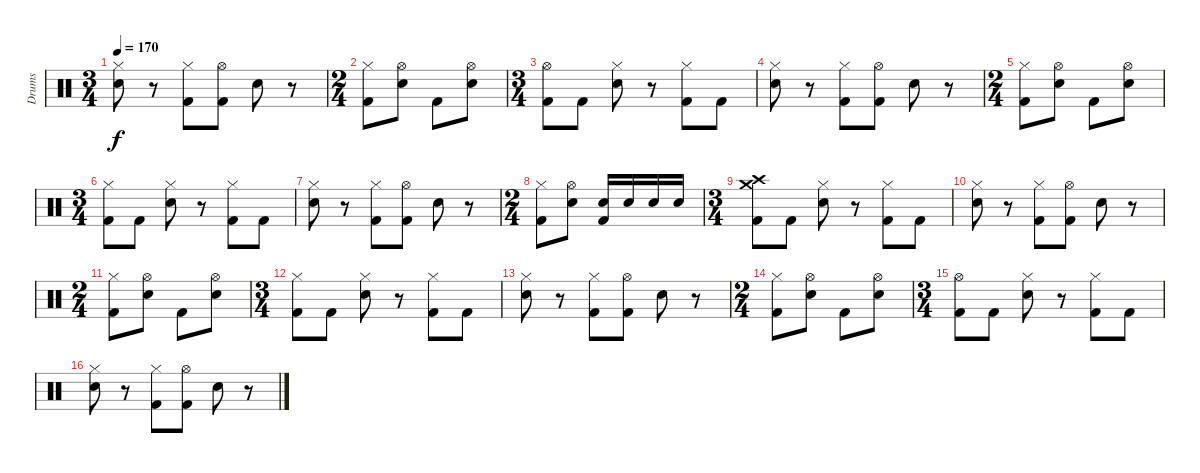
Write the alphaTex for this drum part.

\track ("Drums" "Drums") {instrument percussion}
\staff {score}
\articulation defaults
\ts (3 4)
\tempo 170
\clef neutral
\ks c
("Hi-Hat (closed)" "Electric Snare (hit)").8{dy f} r.8 ("Hi-Hat (closed)" "Kick (hit) 2").8 ("Hi-Hat (open)" "Kick (hit) 2").8 "Electric Snare (hit)".8 r.8 |
\ts (2 4)
("Hi-Hat (closed)" "Kick (hit) 2").8 ("Hi-Hat (open)" "Electric Snare (hit)").8 "Kick (hit) 2".8 ("Hi-Hat (open)" "Electric Snare (hit)").8 |
\ts (3 4)
("Hi-Hat (open)" "Kick (hit) 2").8 "Kick (hit) 2".8 ("Hi-Hat (closed)" "Electric Snare (hit)").8 r.8 ("Hi-Hat (closed)" "Kick (hit) 2").8 "Kick (hit) 2".8 |
("Hi-Hat (closed)" "Electric Snare (hit)").8 r.8 ("Hi-Hat (closed)" "Kick (hit) 2").8 ("Hi-Hat (open)" "Kick (hit) 2").8 "Electric Snare (hit)".8 r.8 |
\ts (2 4)
("Hi-Hat (closed)" "Kick (hit) 2").8 ("Hi-Hat (open)" "Electric Snare (hit)").8 "Kick (hit) 2".8 ("Hi-Hat (open)" "Electric Snare (hit)").8 |
\ts (3 4)
("Hi-Hat (closed)" "Kick (hit) 2").8 "Kick (hit) 2".8 ("Hi-Hat (closed)" "Electric Snare (hit)").8 r.8 ("Hi-Hat (closed)" "Kick (hit) 2").8 "Kick (hit) 2".8 |
("Hi-Hat (closed)" "Electric Snare (hit)").8 r.8 ("Hi-Hat (closed)" "Kick (hit) 2").8 ("Hi-Hat (open)" "Kick (hit) 2").8 "Electric Snare (hit)".8 r.8 |
\ts (2 4)
("Hi-Hat (closed)" "Kick (hit) 2").8 ("Hi-Hat (open)" "Electric Snare (hit)").8 ("Electric Snare (hit)" "Kick (hit) 2").16 "Electric Snare (hit)".16 "Electric Snare (hit)".16 "Electric Snare (hit)".16 |
\ts (3 4)
("Crash medium (hit)" "Crash high (hit)" "Kick (hit) 2").8 "Kick (hit) 2".8 ("Hi-Hat (closed)" "Electric Snare (hit)").8 r.8 ("Hi-Hat (closed)" "Kick (hit) 2").8 "Kick (hit) 2".8 |
("Hi-Hat (closed)" "Electric Snare (hit)").8 r.8 ("Hi-Hat (closed)" "Kick (hit) 2").8 ("Hi-Hat (open)" "Kick (hit) 2").8 "Electric Snare (hit)".8 r.8 |
\ts (2 4)
("Hi-Hat (closed)" "Kick (hit) 2").8 ("Hi-Hat (open)" "Electric Snare (hit)").8 "Kick (hit) 2".8 ("Hi-Hat (open)" "Electric Snare (hit)").8 |
\ts (3 4)
("Hi-Hat (closed)" "Kick (hit) 2").8 "Kick (hit) 2".8 ("Hi-Hat (closed)" "Electric Snare (hit)").8 r.8 ("Hi-Hat (closed)" "Kick (hit) 2").8 "Kick (hit) 2".8 |
("Hi-Hat (closed)" "Electric Snare (hit)").8 r.8 ("Hi-Hat (closed)" "Kick (hit) 2").8 ("Hi-Hat (open)" "Kick (hit) 2").8 "Electric Snare (hit)".8 r.8 |
\ts (2 4)
("Hi-Hat (closed)" "Kick (hit) 2").8 ("Hi-Hat (open)" "Electric Snare (hit)").8 "Kick (hit) 2".8 ("Hi-Hat (open)" "Electric Snare (hit)").8 |
\ts (3 4)
("Hi-Hat (open)" "Kick (hit) 2").8 "Kick (hit) 2".8 ("Hi-Hat (closed)" "Electric Snare (hit)").8 r.8 ("Hi-Hat (closed)" "Kick (hit) 2").8 "Kick (hit) 2".8 |
("Hi-Hat (closed)" "Electric Snare (hit)").8 r.8 ("Hi-Hat (closed)" "Kick (hit) 2").8 ("Hi-Hat (open)" "Kick (hit) 2").8 "Electric Snare (hit)".8 r.8
